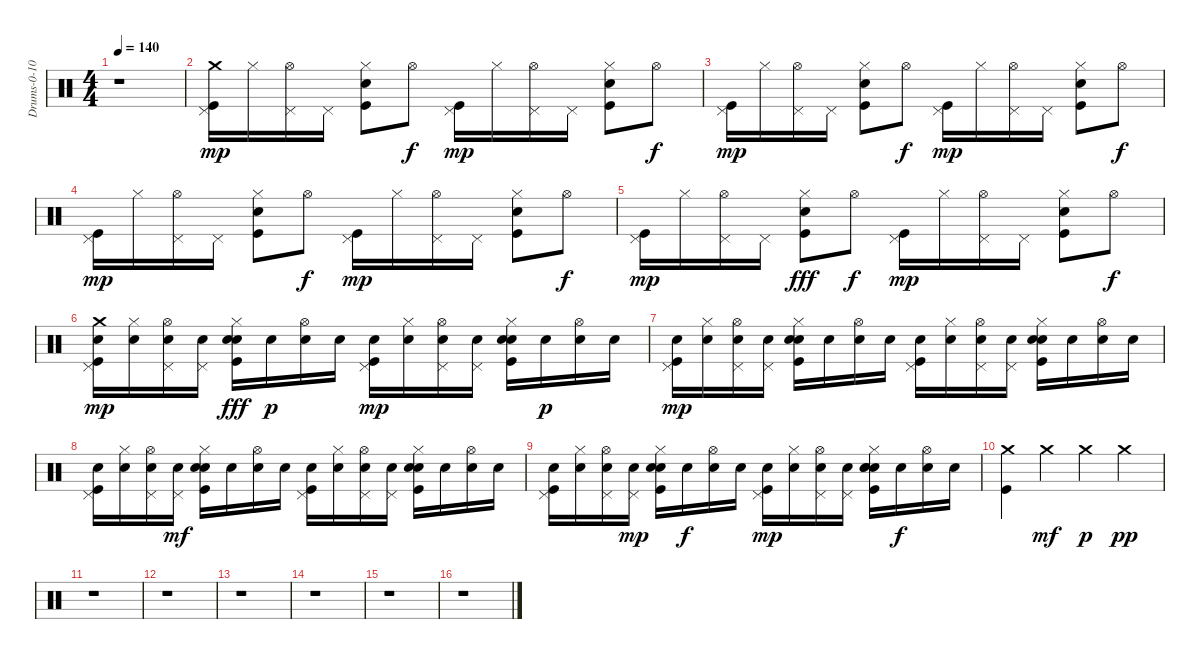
\track ("Drums-0-10" "Drums-0-10") {instrument percussion}
\staff {score}
\articulation defaults
\ts (4 4)
\tempo 140
\clef neutral
\ks c
r.1{dy mp} |
("Crash medium (hit)" "Kick (hit)" "Pedal Hi-Hat (hit)").16 "Hi-Hat (closed)".16 ("Hi-Hat (open)" "Pedal Hi-Hat (hit)").16 "Pedal Hi-Hat (hit)".16 ("Kick (hit)" "Hand Clap (hit)" "Hi-Hat (closed)").8 "Hi-Hat (open)".8{dy f} ("Pedal Hi-Hat (hit)" "Kick (hit)").16{dy mp} "Hi-Hat (closed)".16 ("Pedal Hi-Hat (hit)" "Hi-Hat (open)").16 "Pedal Hi-Hat (hit)".16 ("Hi-Hat (closed)" "Hand Clap (hit)" "Kick (hit)").8 "Hi-Hat (open)".8{dy f} |
("Kick (hit)" "Pedal Hi-Hat (hit)").16{dy mp} "Hi-Hat (closed)".16 ("Hi-Hat (open)" "Pedal Hi-Hat (hit)").16 "Pedal Hi-Hat (hit)".16 ("Kick (hit)" "Hand Clap (hit)" "Hi-Hat (closed)").8 "Hi-Hat (open)".8{dy f} ("Pedal Hi-Hat (hit)" "Kick (hit)").16{dy mp} "Hi-Hat (closed)".16 ("Pedal Hi-Hat (hit)" "Hi-Hat (open)").16 "Pedal Hi-Hat (hit)".16 ("Kick (hit)" "Hand Clap (hit)" "Hi-Hat (closed)").8 "Hi-Hat (open)".8{dy f} |
("Kick (hit)" "Pedal Hi-Hat (hit)").16{dy mp} "Hi-Hat (closed)".16 ("Hi-Hat (open)" "Pedal Hi-Hat (hit)").16 "Pedal Hi-Hat (hit)".16 ("Hand Clap (hit)" "Kick (hit)" "Hi-Hat (closed)").8 "Hi-Hat (open)".8{dy f} ("Kick (hit)" "Pedal Hi-Hat (hit)").16{dy mp} "Hi-Hat (closed)".16 ("Pedal Hi-Hat (hit)" "Hi-Hat (open)").16 "Pedal Hi-Hat (hit)".16 ("Hand Clap (hit)" "Kick (hit)" "Hi-Hat (closed)").8 "Hi-Hat (open)".8{dy f} |
("Pedal Hi-Hat (hit)" "Kick (hit)").16{dy mp} "Hi-Hat (closed)".16 ("Pedal Hi-Hat (hit)" "Hi-Hat (open)").16 "Pedal Hi-Hat (hit)".16 ("Kick (hit)" "Hi-Hat (closed)" "Hand Clap (hit)").8{dy fff} "Hi-Hat (open)".8{dy f} ("Kick (hit)" "Pedal Hi-Hat (hit)").16{dy mp} "Hi-Hat (closed)".16 ("Hi-Hat (open)" "Pedal Hi-Hat (hit)").16 "Pedal Hi-Hat (hit)".16 ("Hand Clap (hit)" "Kick (hit)" "Hi-Hat (closed)").8 "Hi-Hat (open)".8{dy f} |
("Snare (hit) 2" "Crash medium (hit)" "Pedal Hi-Hat (hit)" "Kick (hit)").16{dy mp} ("Snare (hit) 2" "Hi-Hat (closed)").16 ("Snare (hit) 2" "Hi-Hat (open)" "Pedal Hi-Hat (hit)").16 ("Snare (hit) 2" "Pedal Hi-Hat (hit)").16 ("Snare (hit) 2" "Kick (hit)" "Hi-Hat (closed)" "Hand Clap (hit)").16{dy fff} "Snare (hit) 2".16{dy p} ("Snare (hit) 2" "Hi-Hat (open)").16 "Snare (hit) 2".16 ("Snare (hit) 2" "Pedal Hi-Hat (hit)" "Kick (hit)").16{dy mp} ("Snare (hit) 2" "Hi-Hat (closed)").16 ("Snare (hit) 2" "Pedal Hi-Hat (hit)" "Hi-Hat (open)").16 ("Snare (hit) 2" "Pedal Hi-Hat (hit)").16 ("Snare (hit) 2" "Hand Clap (hit)" "Kick (hit)" "Hi-Hat (closed)").16 "Snare (hit) 2".16{dy p} ("Snare (hit) 2" "Hi-Hat (open)").16 "Snare (hit) 2".16 |
("Pedal Hi-Hat (hit)" "Kick (hit)" "Snare (hit) 2").16{dy mp} ("Hi-Hat (closed)" "Snare (hit) 2").16 ("Hi-Hat (open)" "Pedal Hi-Hat (hit)" "Snare (hit) 2").16 ("Pedal Hi-Hat (hit)" "Snare (hit) 2").16 ("Kick (hit)" "Hand Clap (hit)" "Hi-Hat (closed)" "Snare (hit) 2").16 "Snare (hit) 2".16 ("Hi-Hat (open)" "Snare (hit) 2").16 "Snare (hit) 2".16 ("Kick (hit)" "Pedal Hi-Hat (hit)" "Snare (hit) 2").16 ("Hi-Hat (closed)" "Snare (hit) 2").16 ("Pedal Hi-Hat (hit)" "Hi-Hat (open)" "Snare (hit) 2").16 ("Pedal Hi-Hat (hit)" "Snare (hit) 2").16 ("Hand Clap (hit)" "Kick (hit)" "Hi-Hat (closed)" "Snare (hit) 2").16 "Snare (hit) 2".16 ("Hi-Hat (open)" "Snare (hit) 2").16 "Snare (hit) 2".16 |
("Pedal Hi-Hat (hit)" "Kick (hit)" "Snare (hit) 2").16 ("Hi-Hat (closed)" "Snare (hit) 2").16 ("Pedal Hi-Hat (hit)" "Hi-Hat (open)" "Snare (hit) 2").16 ("Pedal Hi-Hat (hit)" "Snare (hit) 2").16{dy mf} ("Kick (hit)" "Hand Clap (hit)" "Hi-Hat (closed)" "Snare (hit) 2").16 "Snare (hit) 2".16 ("Hi-Hat (open)" "Snare (hit) 2").16 "Snare (hit) 2".16 ("Kick (hit)" "Pedal Hi-Hat (hit)" "Snare (hit) 2").16 ("Hi-Hat (closed)" "Snare (hit) 2").16 ("Hi-Hat (open)" "Pedal Hi-Hat (hit)" "Snare (hit) 2").16 ("Pedal Hi-Hat (hit)" "Snare (hit) 2").16 ("Kick (hit)" "Hi-Hat (closed)" "Hand Clap (hit)" "Snare (hit) 2").16 "Snare (hit) 2".16 ("Hi-Hat (open)" "Snare (hit) 2").16 "Snare (hit) 2".16 |
("Pedal Hi-Hat (hit)" "Kick (hit)" "Snare (hit) 2").16 ("Hi-Hat (closed)" "Snare (hit) 2").16 ("Pedal Hi-Hat (hit)" "Hi-Hat (open)" "Snare (hit) 2").16 ("Pedal Hi-Hat (hit)" "Snare (hit) 2").16{dy mp} ("Hand Clap (hit)" "Kick (hit)" "Hi-Hat (closed)" "Snare (hit) 2").16 "Snare (hit) 2".16{dy f} ("Hi-Hat (open)" "Snare (hit) 2").16 "Snare (hit) 2".16 ("Kick (hit)" "Pedal Hi-Hat (hit)" "Snare (hit) 2").16{dy mp} ("Hi-Hat (closed)" "Snare (hit) 2").16 ("Hi-Hat (open)" "Pedal Hi-Hat (hit)" "Snare (hit) 2").16 ("Pedal Hi-Hat (hit)" "Snare (hit) 2").16 ("Kick (hit)" "Hand Clap (hit)" "Hi-Hat (closed)" "Hand Clap (hit)" "Snare (hit) 2").16 "Snare (hit) 2".16{dy f} ("Hi-Hat (open)" "Snare (hit) 2").16 "Snare (hit) 2".16 |
("Crash medium (hit)" "Kick (hit)").4 "Crash medium (hit)".4{dy mf} "Crash medium (hit)".4{dy p} "Crash medium (hit)".4{dy pp} |
r.1 |
r.1 |
r.1 |
r.1 |
r.1 |
r.1
